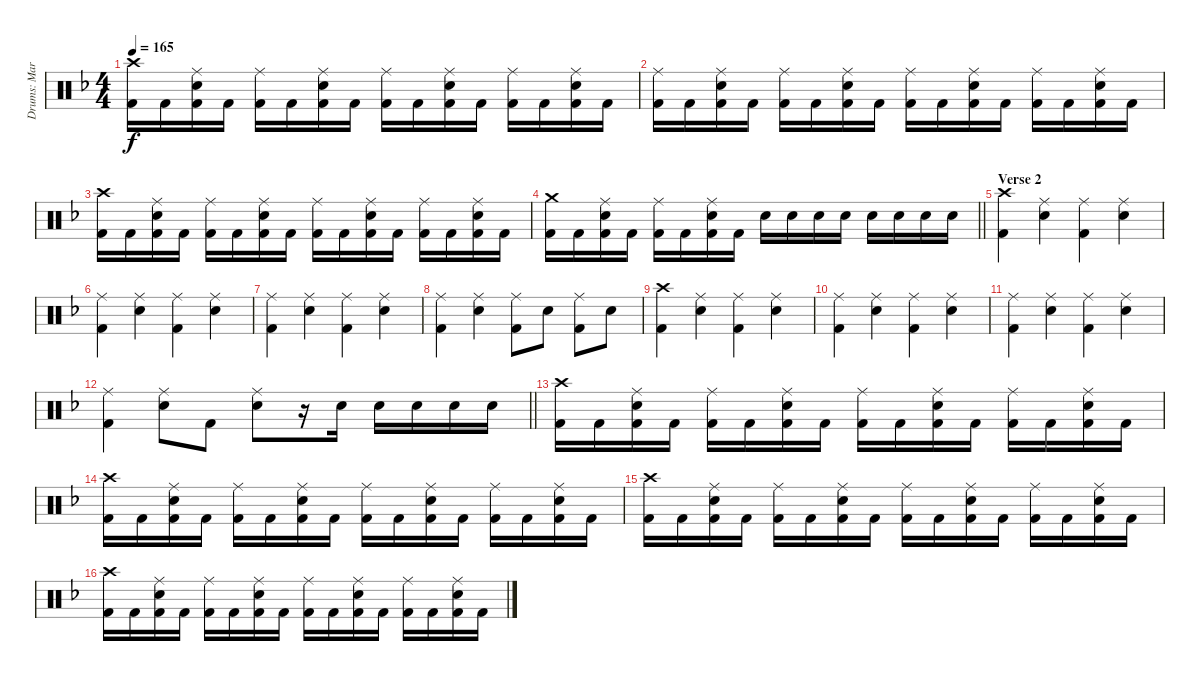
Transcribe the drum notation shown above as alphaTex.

\track ("Drums: Martin Herzinger" "Drums: Mar") {instrument percussion}
\staff {score}
\articulation defaults
\ts (4 4)
\tempo 165
\clef neutral
\ks dminor
("Crash high (hit)" "Kick (hit) 2").16{dy f} "Kick (hit) 2".16 ("Ride (middle)" "Snare (hit) 2" "Kick (hit) 2").16 "Kick (hit) 2".16 ("Ride (middle)" "Kick (hit) 2").16 "Kick (hit) 2".16 ("Ride (middle)" "Snare (hit) 2" "Kick (hit) 2").16 "Kick (hit) 2".16 ("Ride (middle)" "Kick (hit) 2").16 "Kick (hit) 2".16 ("Ride (middle)" "Snare (hit) 2" "Kick (hit) 2").16 "Kick (hit) 2".16 ("Ride (middle)" "Kick (hit) 2").16 "Kick (hit) 2".16 ("Ride (middle)" "Snare (hit) 2" "Kick (hit) 2").16 "Kick (hit) 2".16 |
("Ride (middle)" "Kick (hit) 2").16 "Kick (hit) 2".16 ("Ride (middle)" "Snare (hit) 2" "Kick (hit) 2").16 "Kick (hit) 2".16 ("Ride (middle)" "Kick (hit) 2").16 "Kick (hit) 2".16 ("Ride (middle)" "Snare (hit) 2" "Kick (hit) 2").16 "Kick (hit) 2".16 ("Ride (middle)" "Kick (hit) 2").16 "Kick (hit) 2".16 ("Ride (middle)" "Snare (hit) 2" "Kick (hit) 2").16 "Kick (hit) 2".16 ("Ride (middle)" "Kick (hit) 2").16 "Kick (hit) 2".16 ("Ride (middle)" "Snare (hit) 2" "Kick (hit) 2").16 "Kick (hit) 2".16 |
("Crash high (hit)" "Kick (hit) 2").16 "Kick (hit) 2".16 ("Ride (middle)" "Snare (hit) 2" "Kick (hit) 2").16 "Kick (hit) 2".16 ("Ride (middle)" "Kick (hit) 2").16 "Kick (hit) 2".16 ("Ride (middle)" "Snare (hit) 2" "Kick (hit) 2").16 "Kick (hit) 2".16 ("Ride (middle)" "Kick (hit) 2").16 "Kick (hit) 2".16 ("Ride (middle)" "Snare (hit) 2" "Kick (hit) 2").16 "Kick (hit) 2".16 ("Ride (middle)" "Kick (hit) 2").16 "Kick (hit) 2".16 ("Ride (middle)" "Snare (hit) 2" "Kick (hit) 2").16 "Kick (hit) 2".16 |
\barLineRight lightlight
("Crash medium (hit)" "Kick (hit) 2").16 "Kick (hit) 2".16 ("Ride (middle)" "Snare (hit) 2" "Kick (hit) 2").16 "Kick (hit) 2".16 ("Ride (middle)" "Kick (hit) 2").16 "Kick (hit) 2".16 ("Ride (middle)" "Snare (hit) 2" "Kick (hit) 2").16 "Kick (hit) 2".16 "Snare (hit) 2".16 "Snare (hit) 2".16 "Snare (hit) 2".16 "Snare (hit) 2".16 "Snare (hit) 2".16 "Snare (hit) 2".16 "Snare (hit) 2".16 "Snare (hit) 2".16 |
\section ("" "Verse 2")
("Crash high (hit)" "Kick (hit) 2").4 ("Ride (middle)" "Snare (hit) 2").4 ("Ride (middle)" "Kick (hit) 2").4 ("Ride (middle)" "Snare (hit) 2").4 |
("Ride (middle)" "Kick (hit) 2").4 ("Ride (middle)" "Snare (hit) 2").4 ("Ride (middle)" "Kick (hit) 2").4 ("Ride (middle)" "Snare (hit) 2").4 |
("Ride (middle)" "Kick (hit) 2").4 ("Ride (middle)" "Snare (hit) 2").4 ("Ride (middle)" "Kick (hit) 2").4 ("Ride (middle)" "Snare (hit) 2").4 |
("Ride (middle)" "Kick (hit) 2").4 ("Ride (middle)" "Snare (hit) 2").4 ("Ride (middle)" "Kick (hit) 2").8 "Snare (hit) 2".8 ("Ride (middle)" "Kick (hit) 2").8 "Snare (hit) 2".8 |
("Crash high (hit)" "Kick (hit) 2").4 ("Ride (middle)" "Snare (hit) 2").4 ("Ride (middle)" "Kick (hit) 2").4 ("Ride (middle)" "Snare (hit) 2").4 |
("Ride (middle)" "Kick (hit) 2").4 ("Ride (middle)" "Snare (hit) 2").4 ("Ride (middle)" "Kick (hit) 2").4 ("Ride (middle)" "Snare (hit) 2").4 |
("Ride (middle)" "Kick (hit) 2").4 ("Ride (middle)" "Snare (hit) 2").4 ("Ride (middle)" "Kick (hit) 2").4 ("Ride (middle)" "Snare (hit) 2").4 |
\barLineRight lightlight
("Ride (middle)" "Kick (hit) 2").4 ("Ride (middle)" "Snare (hit) 2").8 "Kick (hit) 2".8 ("Ride (middle)" "Snare (hit) 2").8 r.16 "Snare (hit) 2".16 "Snare (hit) 2".16 "Snare (hit) 2".16 "Snare (hit) 2".16 "Snare (hit) 2".16 |
("Crash high (hit)" "Kick (hit) 2").16 "Kick (hit) 2".16 ("Ride (middle)" "Snare (hit) 2" "Kick (hit) 2").16 "Kick (hit) 2".16 ("Ride (middle)" "Kick (hit) 2").16 "Kick (hit) 2".16 ("Ride (middle)" "Snare (hit) 2" "Kick (hit) 2").16 "Kick (hit) 2".16 ("Ride (middle)" "Kick (hit) 2").16 "Kick (hit) 2".16 ("Ride (middle)" "Snare (hit) 2" "Kick (hit) 2").16 "Kick (hit) 2".16 ("Ride (middle)" "Kick (hit) 2").16 "Kick (hit) 2".16 ("Ride (middle)" "Snare (hit) 2" "Kick (hit) 2").16 "Kick (hit) 2".16 |
("Crash high (hit)" "Kick (hit) 2").16 "Kick (hit) 2".16 ("Ride (middle)" "Snare (hit) 2" "Kick (hit) 2").16 "Kick (hit) 2".16 ("Ride (middle)" "Kick (hit) 2").16 "Kick (hit) 2".16 ("Ride (middle)" "Snare (hit) 2" "Kick (hit) 2").16 "Kick (hit) 2".16 ("Ride (middle)" "Kick (hit) 2").16 "Kick (hit) 2".16 ("Ride (middle)" "Snare (hit) 2" "Kick (hit) 2").16 "Kick (hit) 2".16 ("Ride (middle)" "Kick (hit) 2").16 "Kick (hit) 2".16 ("Ride (middle)" "Snare (hit) 2" "Kick (hit) 2").16 "Kick (hit) 2".16 |
("Crash high (hit)" "Kick (hit) 2").16 "Kick (hit) 2".16 ("Ride (middle)" "Snare (hit) 2" "Kick (hit) 2").16 "Kick (hit) 2".16 ("Ride (middle)" "Kick (hit) 2").16 "Kick (hit) 2".16 ("Ride (middle)" "Snare (hit) 2" "Kick (hit) 2").16 "Kick (hit) 2".16 ("Ride (middle)" "Kick (hit) 2").16 "Kick (hit) 2".16 ("Ride (middle)" "Snare (hit) 2" "Kick (hit) 2").16 "Kick (hit) 2".16 ("Ride (middle)" "Kick (hit) 2").16 "Kick (hit) 2".16 ("Ride (middle)" "Snare (hit) 2" "Kick (hit) 2").16 "Kick (hit) 2".16 |
("Crash high (hit)" "Kick (hit) 2").16 "Kick (hit) 2".16 ("Ride (middle)" "Snare (hit) 2" "Kick (hit) 2").16 "Kick (hit) 2".16 ("Ride (middle)" "Kick (hit) 2").16 "Kick (hit) 2".16 ("Ride (middle)" "Snare (hit) 2" "Kick (hit) 2").16 "Kick (hit) 2".16 ("Ride (middle)" "Kick (hit) 2").16 "Kick (hit) 2".16 ("Ride (middle)" "Snare (hit) 2" "Kick (hit) 2").16 "Kick (hit) 2".16 ("Ride (middle)" "Kick (hit) 2").16 "Kick (hit) 2".16 ("Ride (middle)" "Snare (hit) 2" "Kick (hit) 2").16 "Kick (hit) 2".16
